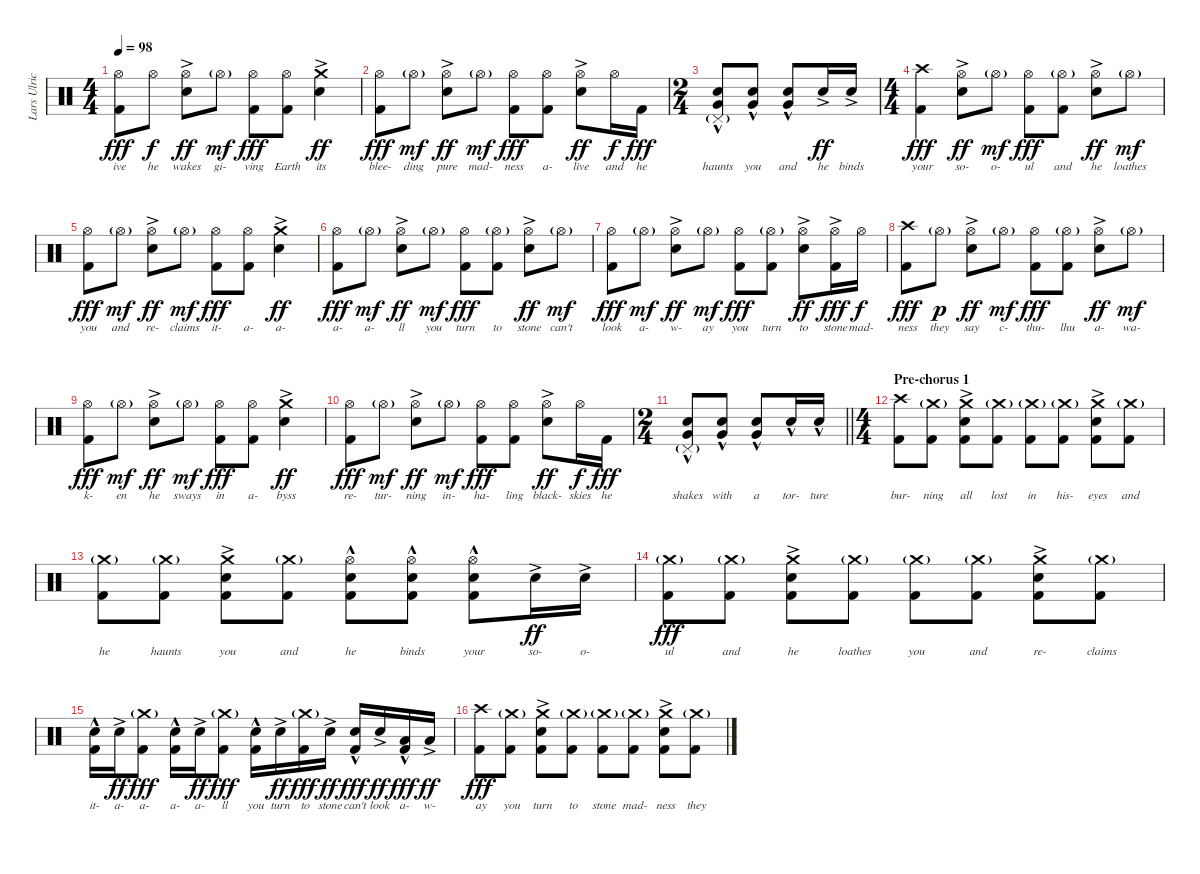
\track ("Lars Ulrich (Drums)" "Lars Ulric") {instrument percussion}
\staff {score}
\articulation defaults
\ts (4 4)
\tempo 98
\clef neutral
\ks c
("Hi-Hat (open)" "Kick (hit) 2").8{lyrics (0 "ive") lyrics (1 "") lyrics (2 "") lyrics (3 "") lyrics (4 "") dy fff} "Hi-Hat (open)".8{lyrics (0 "he") lyrics (1 "") lyrics (2 "") lyrics (3 "") lyrics (4 "") dy f} ("Hi-Hat (open)"{ac} "Electric Snare (hit)"{ac}).8{lyrics (0 "wakes") lyrics (1 "") lyrics (2 "") lyrics (3 "") lyrics (4 "") dy ff} "Hi-Hat (open)"{g}.8{lyrics (0 "gi-") lyrics (1 "") lyrics (2 "") lyrics (3 "") lyrics (4 "") dy mf} ("Hi-Hat (open)" "Kick (hit) 2").8{lyrics (0 "ving") lyrics (1 "") lyrics (2 "") lyrics (3 "") lyrics (4 "") dy fff} ("Hi-Hat (open)" "Kick (hit) 2").8{lyrics (0 "Earth") lyrics (1 "") lyrics (2 "") lyrics (3 "") lyrics (4 "")} ("Crash medium (hit)" "Electric Snare (hit)"{ac}).4{lyrics (0 "its") lyrics (1 "") lyrics (2 "") lyrics (3 "") lyrics (4 "") dy ff} |
("Hi-Hat (open)" "Kick (hit) 2").8{lyrics (0 "blee-") lyrics (1 "") lyrics (2 "") lyrics (3 "") lyrics (4 "") dy fff} "Hi-Hat (open)"{g}.8{lyrics (0 "ding") lyrics (1 "") lyrics (2 "") lyrics (3 "") lyrics (4 "") dy mf} ("Hi-Hat (open)"{ac} "Electric Snare (hit)"{ac}).8{lyrics (0 "pure") lyrics (1 "") lyrics (2 "") lyrics (3 "") lyrics (4 "") dy ff} "Hi-Hat (open)"{g}.8{lyrics (0 "mad-") lyrics (1 "") lyrics (2 "") lyrics (3 "") lyrics (4 "") dy mf} ("Hi-Hat (open)" "Kick (hit) 2").8{lyrics (0 "ness") lyrics (1 "") lyrics (2 "") lyrics (3 "") lyrics (4 "") dy fff} ("Hi-Hat (open)" "Kick (hit) 2").8{lyrics (0 "a-") lyrics (1 "") lyrics (2 "") lyrics (3 "") lyrics (4 "")} ("Hi-Hat (open)"{ac} "Electric Snare (hit)"{ac}).8{lyrics (0 "live") lyrics (1 "") lyrics (2 "") lyrics (3 "") lyrics (4 "") dy ff} "Hi-Hat (open)".16{lyrics (0 "and") lyrics (1 "") lyrics (2 "") lyrics (3 "") lyrics (4 "") dy f} "Kick (hit) 2".16{lyrics (0 "he") lyrics (1 "") lyrics (2 "") lyrics (3 "") lyrics (4 "") dy fff} |
\ts (2 4)
("Pedal Hi-Hat (hit)"{g} "Electric Snare (hit)"{hac} "Very Low Tom (hit)"{hac}).8{lyrics (0 "haunts") lyrics (1 "") lyrics (2 "") lyrics (3 "") lyrics (4 "")} ("Electric Snare (hit)"{hac} "Very Low Tom (hit)"{hac}).8{lyrics (0 "you") lyrics (1 "") lyrics (2 "") lyrics (3 "") lyrics (4 "")} ("Electric Snare (hit)"{hac} "Very Low Tom (hit)"{hac}).8{lyrics (0 "and") lyrics (1 "") lyrics (2 "") lyrics (3 "") lyrics (4 "")} "Electric Snare (hit)"{ac}.16{lyrics (0 "he") lyrics (1 "") lyrics (2 "") lyrics (3 "") lyrics (4 "") dy ff} "Electric Snare (hit)"{ac}.16{lyrics (0 "binds") lyrics (1 "") lyrics (2 "") lyrics (3 "") lyrics (4 "")} |
\ts (4 4)
("Crash high (hit)" "Kick (hit) 2").4{lyrics (0 "your") lyrics (1 "") lyrics (2 "") lyrics (3 "") lyrics (4 "") dy fff} ("Hi-Hat (open)"{ac} "Electric Snare (hit)"{ac}).8{lyrics (0 "so-") lyrics (1 "") lyrics (2 "") lyrics (3 "") lyrics (4 "") dy ff} "Hi-Hat (open)"{g}.8{lyrics (0 "o-") lyrics (1 "") lyrics (2 "") lyrics (3 "") lyrics (4 "") dy mf} ("Hi-Hat (open)" "Kick (hit) 2").8{lyrics (0 "ul") lyrics (1 "") lyrics (2 "") lyrics (3 "") lyrics (4 "") dy fff} ("Hi-Hat (open)"{g} "Kick (hit) 2").8{lyrics (0 "and") lyrics (1 "") lyrics (2 "") lyrics (3 "") lyrics (4 "")} ("Hi-Hat (open)"{ac} "Electric Snare (hit)"{ac}).8{lyrics (0 "he") lyrics (1 "") lyrics (2 "") lyrics (3 "") lyrics (4 "") dy ff} "Hi-Hat (open)"{g}.8{lyrics (0 "loathes") lyrics (1 "") lyrics (2 "") lyrics (3 "") lyrics (4 "") dy mf} |
("Hi-Hat (open)" "Kick (hit) 2").8{lyrics (0 "you") lyrics (1 "") lyrics (2 "") lyrics (3 "") lyrics (4 "") dy fff} "Hi-Hat (open)"{g}.8{lyrics (0 "and") lyrics (1 "") lyrics (2 "") lyrics (3 "") lyrics (4 "") dy mf} ("Hi-Hat (open)"{ac} "Electric Snare (hit)"{ac}).8{lyrics (0 "re-") lyrics (1 "") lyrics (2 "") lyrics (3 "") lyrics (4 "") dy ff} "Hi-Hat (open)"{g}.8{lyrics (0 "claims") lyrics (1 "") lyrics (2 "") lyrics (3 "") lyrics (4 "") dy mf} ("Hi-Hat (open)" "Kick (hit) 2").8{lyrics (0 "it-") lyrics (1 "") lyrics (2 "") lyrics (3 "") lyrics (4 "") dy fff} ("Hi-Hat (open)" "Kick (hit) 2").8{lyrics (0 "a-") lyrics (1 "") lyrics (2 "") lyrics (3 "") lyrics (4 "")} ("Crash medium (hit)" "Electric Snare (hit)"{ac}).4{lyrics (0 "a-") lyrics (1 "") lyrics (2 "") lyrics (3 "") lyrics (4 "") dy ff} |
("Hi-Hat (open)" "Kick (hit) 2").8{lyrics (0 "a-") lyrics (1 "") lyrics (2 "") lyrics (3 "") lyrics (4 "") dy fff} "Hi-Hat (open)"{g}.8{lyrics (0 "a-") lyrics (1 "") lyrics (2 "") lyrics (3 "") lyrics (4 "") dy mf} ("Hi-Hat (open)"{ac} "Electric Snare (hit)"{ac}).8{lyrics (0 "ll") lyrics (1 "") lyrics (2 "") lyrics (3 "") lyrics (4 "") dy ff} "Hi-Hat (open)"{g}.8{lyrics (0 "you") lyrics (1 "") lyrics (2 "") lyrics (3 "") lyrics (4 "") dy mf} ("Hi-Hat (open)" "Kick (hit) 2").8{lyrics (0 "turn") lyrics (1 "") lyrics (2 "") lyrics (3 "") lyrics (4 "") dy fff} ("Hi-Hat (open)"{g} "Kick (hit) 2").8{lyrics (0 "to") lyrics (1 "") lyrics (2 "") lyrics (3 "") lyrics (4 "")} ("Hi-Hat (open)"{ac} "Electric Snare (hit)"{ac}).8{lyrics (0 "stone") lyrics (1 "") lyrics (2 "") lyrics (3 "") lyrics (4 "") dy ff} "Hi-Hat (open)"{g}.8{lyrics (0 "can't") lyrics (1 "") lyrics (2 "") lyrics (3 "") lyrics (4 "") dy mf} |
("Hi-Hat (open)" "Kick (hit) 2").8{lyrics (0 "look") lyrics (1 "") lyrics (2 "") lyrics (3 "") lyrics (4 "") dy fff} "Hi-Hat (open)"{g}.8{lyrics (0 "a-") lyrics (1 "") lyrics (2 "") lyrics (3 "") lyrics (4 "") dy mf} ("Hi-Hat (open)"{ac} "Electric Snare (hit)"{ac}).8{lyrics (0 "w-") lyrics (1 "") lyrics (2 "") lyrics (3 "") lyrics (4 "") dy ff} "Hi-Hat (open)"{g}.8{lyrics (0 "ay") lyrics (1 "") lyrics (2 "") lyrics (3 "") lyrics (4 "") dy mf} ("Hi-Hat (open)" "Kick (hit) 2").8{lyrics (0 "you") lyrics (1 "") lyrics (2 "") lyrics (3 "") lyrics (4 "") dy fff} ("Hi-Hat (open)"{g} "Kick (hit) 2").8{lyrics (0 "turn") lyrics (1 "") lyrics (2 "") lyrics (3 "") lyrics (4 "")} ("Hi-Hat (open)"{ac} "Electric Snare (hit)"{ac}).8{lyrics (0 "to") lyrics (1 "") lyrics (2 "") lyrics (3 "") lyrics (4 "") dy ff} ("Hi-Hat (open)"{ac} "Kick (hit) 2").16{lyrics (0 "stone") lyrics (1 "") lyrics (2 "") lyrics (3 "") lyrics (4 "") dy fff} "Hi-Hat (open)".16{lyrics (0 "mad-") lyrics (1 "") lyrics (2 "") lyrics (3 "") lyrics (4 "") dy f} |
("Crash high (hit)" "Kick (hit) 2").8{lyrics (0 "ness") lyrics (1 "") lyrics (2 "") lyrics (3 "") lyrics (4 "") dy fff} "Hi-Hat (open)"{g}.8{lyrics (0 "they") lyrics (1 "") lyrics (2 "") lyrics (3 "") lyrics (4 "") dy p} ("Hi-Hat (open)"{ac} "Electric Snare (hit)"{ac}).8{lyrics (0 "say") lyrics (1 "") lyrics (2 "") lyrics (3 "") lyrics (4 "") dy ff} "Hi-Hat (open)"{g}.8{lyrics (0 "c-") lyrics (1 "") lyrics (2 "") lyrics (3 "") lyrics (4 "") dy mf} ("Hi-Hat (open)" "Kick (hit) 2").8{lyrics (0 "thu-") lyrics (1 "") lyrics (2 "") lyrics (3 "") lyrics (4 "") dy fff} ("Hi-Hat (open)"{g} "Kick (hit) 2").8{lyrics (0 "lhu") lyrics (1 "") lyrics (2 "") lyrics (3 "") lyrics (4 "")} ("Hi-Hat (open)"{ac} "Electric Snare (hit)"{ac}).8{lyrics (0 "a-") lyrics (1 "") lyrics (2 "") lyrics (3 "") lyrics (4 "") dy ff} "Hi-Hat (open)"{g}.8{lyrics (0 "wa-") lyrics (1 "") lyrics (2 "") lyrics (3 "") lyrics (4 "") dy mf} |
("Hi-Hat (open)" "Kick (hit) 2").8{lyrics (0 "k-") lyrics (1 "") lyrics (2 "") lyrics (3 "") lyrics (4 "") dy fff} "Hi-Hat (open)"{g}.8{lyrics (0 "en") lyrics (1 "") lyrics (2 "") lyrics (3 "") lyrics (4 "") dy mf} ("Hi-Hat (open)"{ac} "Electric Snare (hit)"{ac}).8{lyrics (0 "he") lyrics (1 "") lyrics (2 "") lyrics (3 "") lyrics (4 "") dy ff} "Hi-Hat (open)"{g}.8{lyrics (0 "sways") lyrics (1 "") lyrics (2 "") lyrics (3 "") lyrics (4 "") dy mf} ("Hi-Hat (open)" "Kick (hit) 2").8{lyrics (0 "in") lyrics (1 "") lyrics (2 "") lyrics (3 "") lyrics (4 "") dy fff} ("Hi-Hat (open)" "Kick (hit) 2").8{lyrics (0 "a-") lyrics (1 "") lyrics (2 "") lyrics (3 "") lyrics (4 "")} ("Crash medium (hit)" "Electric Snare (hit)"{ac}).4{lyrics (0 "byss") lyrics (1 "") lyrics (2 "") lyrics (3 "") lyrics (4 "") dy ff} |
("Hi-Hat (open)" "Kick (hit) 2").8{lyrics (0 "re-") lyrics (1 "") lyrics (2 "") lyrics (3 "") lyrics (4 "") dy fff} "Hi-Hat (open)"{g}.8{lyrics (0 "tur-") lyrics (1 "") lyrics (2 "") lyrics (3 "") lyrics (4 "") dy mf} ("Hi-Hat (open)"{ac} "Electric Snare (hit)"{ac}).8{lyrics (0 "ning") lyrics (1 "") lyrics (2 "") lyrics (3 "") lyrics (4 "") dy ff} "Hi-Hat (open)"{g}.8{lyrics (0 "in-") lyrics (1 "") lyrics (2 "") lyrics (3 "") lyrics (4 "") dy mf} ("Hi-Hat (open)" "Kick (hit) 2").8{lyrics (0 "ha-") lyrics (1 "") lyrics (2 "") lyrics (3 "") lyrics (4 "") dy fff} ("Hi-Hat (open)" "Kick (hit) 2").8{lyrics (0 "ling") lyrics (1 "") lyrics (2 "") lyrics (3 "") lyrics (4 "")} ("Hi-Hat (open)"{ac} "Electric Snare (hit)"{ac}).8{lyrics (0 "black-") lyrics (1 "") lyrics (2 "") lyrics (3 "") lyrics (4 "") dy ff} "Hi-Hat (open)".16{lyrics (0 "skies") lyrics (1 "") lyrics (2 "") lyrics (3 "") lyrics (4 "") dy f} "Kick (hit) 2".16{lyrics (0 "he") lyrics (1 "") lyrics (2 "") lyrics (3 "") lyrics (4 "") dy fff} |
\ts (2 4)
\barLineRight lightlight
("Pedal Hi-Hat (hit)"{g} "Electric Snare (hit)"{hac} "Very Low Tom (hit)"{hac}).8{lyrics (0 "shakes") lyrics (1 "") lyrics (2 "") lyrics (3 "") lyrics (4 "")} ("Electric Snare (hit)"{hac} "Very Low Tom (hit)"{hac}).8{lyrics (0 "with") lyrics (1 "") lyrics (2 "") lyrics (3 "") lyrics (4 "")} ("Electric Snare (hit)"{hac} "Very Low Tom (hit)"{hac}).8{lyrics (0 "a") lyrics (1 "") lyrics (2 "") lyrics (3 "") lyrics (4 "")} "Electric Snare (hit)"{hac}.16{lyrics (0 "tor-") lyrics (1 "") lyrics (2 "") lyrics (3 "") lyrics (4 "")} "Electric Snare (hit)"{hac}.16{lyrics (0 "ture") lyrics (1 "") lyrics (2 "") lyrics (3 "") lyrics (4 "")} |
\ts (4 4)
\section ("" "Pre-chorus 1")
("Crash high (hit)" "Kick (hit) 2").8{lyrics (0 "bur-") lyrics (1 "") lyrics (2 "") lyrics (3 "") lyrics (4 "")} ("Crash medium (hit)"{g} "Kick (hit) 2").8{lyrics (0 "ning") lyrics (1 "") lyrics (2 "") lyrics (3 "") lyrics (4 "")} ("Crash medium (hit)" "Electric Snare (hit)"{ac} "Kick (hit) 2").8{lyrics (0 "all") lyrics (1 "") lyrics (2 "") lyrics (3 "") lyrics (4 "")} ("Crash medium (hit)"{g} "Kick (hit) 2").8{lyrics (0 "lost") lyrics (1 "") lyrics (2 "") lyrics (3 "") lyrics (4 "")} ("Crash medium (hit)"{g} "Kick (hit) 2").8{lyrics (0 "in") lyrics (1 "") lyrics (2 "") lyrics (3 "") lyrics (4 "")} ("Crash medium (hit)"{g} "Kick (hit) 2").8{lyrics (0 "his-") lyrics (1 "") lyrics (2 "") lyrics (3 "") lyrics (4 "")} ("Crash medium (hit)" "Electric Snare (hit)"{ac} "Kick (hit) 2").8{lyrics (0 "eyes") lyrics (1 "") lyrics (2 "") lyrics (3 "") lyrics (4 "")} ("Crash medium (hit)"{g} "Kick (hit) 2").8{lyrics (0 "and") lyrics (1 "") lyrics (2 "") lyrics (3 "") lyrics (4 "")} |
("Crash medium (hit)"{g} "Kick (hit) 2").8{lyrics (0 "he") lyrics (1 "") lyrics (2 "") lyrics (3 "") lyrics (4 "")} ("Crash medium (hit)"{g} "Kick (hit) 2").8{lyrics (0 "haunts") lyrics (1 "") lyrics (2 "") lyrics (3 "") lyrics (4 "")} ("Crash medium (hit)" "Electric Snare (hit)"{ac} "Kick (hit) 2").8{lyrics (0 "you") lyrics (1 "") lyrics (2 "") lyrics (3 "") lyrics (4 "")} ("Crash medium (hit)"{g} "Kick (hit) 2").8{lyrics (0 "and") lyrics (1 "") lyrics (2 "") lyrics (3 "") lyrics (4 "")} ("Hi-Hat (open)"{hac} "Electric Snare (hit)"{hac} "Kick (hit) 2").8{lyrics (0 "he") lyrics (1 "") lyrics (2 "") lyrics (3 "") lyrics (4 "")} ("Hi-Hat (open)"{hac} "Electric Snare (hit)"{hac} "Kick (hit) 2").8{lyrics (0 "binds") lyrics (1 "") lyrics (2 "") lyrics (3 "") lyrics (4 "")} ("Hi-Hat (open)"{hac} "Electric Snare (hit)"{hac} "Kick (hit) 2").8{lyrics (0 "your") lyrics (1 "") lyrics (2 "") lyrics (3 "") lyrics (4 "")} "Electric Snare (hit)"{ac}.16{lyrics (0 "so-") lyrics (1 "") lyrics (2 "") lyrics (3 "") lyrics (4 "") dy ff} "Electric Snare (hit)"{ac}.16{lyrics (0 "o-") lyrics (1 "") lyrics (2 "") lyrics (3 "") lyrics (4 "")} |
("Crash medium (hit)"{g} "Kick (hit) 2").8{lyrics (0 "ul") lyrics (1 "") lyrics (2 "") lyrics (3 "") lyrics (4 "") dy fff} ("Crash medium (hit)"{g} "Kick (hit) 2").8{lyrics (0 "and") lyrics (1 "") lyrics (2 "") lyrics (3 "") lyrics (4 "")} ("Crash medium (hit)" "Electric Snare (hit)"{ac} "Kick (hit) 2").8{lyrics (0 "he") lyrics (1 "") lyrics (2 "") lyrics (3 "") lyrics (4 "")} ("Crash medium (hit)"{g} "Kick (hit) 2").8{lyrics (0 "loathes") lyrics (1 "") lyrics (2 "") lyrics (3 "") lyrics (4 "")} ("Crash medium (hit)"{g} "Kick (hit) 2").8{lyrics (0 "you") lyrics (1 "") lyrics (2 "") lyrics (3 "") lyrics (4 "")} ("Crash medium (hit)"{g} "Kick (hit) 2").8{lyrics (0 "and") lyrics (1 "") lyrics (2 "") lyrics (3 "") lyrics (4 "")} ("Crash medium (hit)" "Electric Snare (hit)"{ac} "Kick (hit) 2").8{lyrics (0 "re-") lyrics (1 "") lyrics (2 "") lyrics (3 "") lyrics (4 "")} ("Crash medium (hit)"{g} "Kick (hit) 2").8{lyrics (0 "claims") lyrics (1 "") lyrics (2 "") lyrics (3 "") lyrics (4 "")} |
("Electric Snare (hit)"{hac} "Kick (hit) 2").16{lyrics (0 "it-") lyrics (1 "") lyrics (2 "") lyrics (3 "") lyrics (4 "")} "Electric Snare (hit)"{ac}.16{lyrics (0 "a-") lyrics (1 "") lyrics (2 "") lyrics (3 "") lyrics (4 "") dy ff} ("Crash medium (hit)"{g} "Kick (hit) 2").8{lyrics (0 "a-") lyrics (1 "") lyrics (2 "") lyrics (3 "") lyrics (4 "") dy fff} ("Electric Snare (hit)"{hac} "Kick (hit) 2").16{lyrics (0 "a-") lyrics (1 "") lyrics (2 "") lyrics (3 "") lyrics (4 "")} "Electric Snare (hit)"{ac}.16{lyrics (0 "a-") lyrics (1 "") lyrics (2 "") lyrics (3 "") lyrics (4 "") dy ff} ("Crash medium (hit)"{g} "Kick (hit) 2").8{lyrics (0 "ll") lyrics (1 "") lyrics (2 "") lyrics (3 "") lyrics (4 "") dy fff} ("Electric Snare (hit)"{hac} "Kick (hit) 2").16{lyrics (0 "you") lyrics (1 "") lyrics (2 "") lyrics (3 "") lyrics (4 "")} "Electric Snare (hit)"{ac}.16{lyrics (0 "turn") lyrics (1 "") lyrics (2 "") lyrics (3 "") lyrics (4 "") dy ff} ("Crash medium (hit)"{g} "Kick (hit) 2").16{lyrics (0 "to") lyrics (1 "") lyrics (2 "") lyrics (3 "") lyrics (4 "") dy fff} "Electric Snare (hit)"{ac}.16{lyrics (0 "stone") lyrics (1 "") lyrics (2 "") lyrics (3 "") lyrics (4 "") dy ff} ("Electric Snare (hit)"{hac} "Kick (hit) 2").16{lyrics (0 "can't") lyrics (1 "") lyrics (2 "") lyrics (3 "") lyrics (4 "") dy fff} "Electric Snare (hit)"{ac}.16{lyrics (0 "look") lyrics (1 "") lyrics (2 "") lyrics (3 "") lyrics (4 "") dy ff} ("Low Tom (hit)"{hac} "Kick (hit) 2").16{lyrics (0 "a-") lyrics (1 "") lyrics (2 "") lyrics (3 "") lyrics (4 "") dy fff} "Low Tom (hit)"{ac}.16{lyrics (0 "w-") lyrics (1 "") lyrics (2 "") lyrics (3 "") lyrics (4 "") dy ff} |
("Crash high (hit)" "Kick (hit) 2").8{lyrics (0 "ay") lyrics (1 "") lyrics (2 "") lyrics (3 "") lyrics (4 "") dy fff} ("Crash medium (hit)"{g} "Kick (hit) 2").8{lyrics (0 "you") lyrics (1 "") lyrics (2 "") lyrics (3 "") lyrics (4 "")} ("Crash medium (hit)" "Electric Snare (hit)"{ac} "Kick (hit) 2").8{lyrics (0 "turn") lyrics (1 "") lyrics (2 "") lyrics (3 "") lyrics (4 "")} ("Crash medium (hit)"{g} "Kick (hit) 2").8{lyrics (0 "to") lyrics (1 "") lyrics (2 "") lyrics (3 "") lyrics (4 "")} ("Crash medium (hit)"{g} "Kick (hit) 2").8{lyrics (0 "stone") lyrics (1 "") lyrics (2 "") lyrics (3 "") lyrics (4 "")} ("Crash medium (hit)"{g} "Kick (hit) 2").8{lyrics (0 "mad-") lyrics (1 "") lyrics (2 "") lyrics (3 "") lyrics (4 "")} ("Crash medium (hit)" "Electric Snare (hit)"{ac} "Kick (hit) 2").8{lyrics (0 "ness") lyrics (1 "") lyrics (2 "") lyrics (3 "") lyrics (4 "")} ("Crash medium (hit)"{g} "Kick (hit) 2").8{lyrics (0 "they") lyrics (1 "") lyrics (2 "") lyrics (3 "") lyrics (4 "")}
